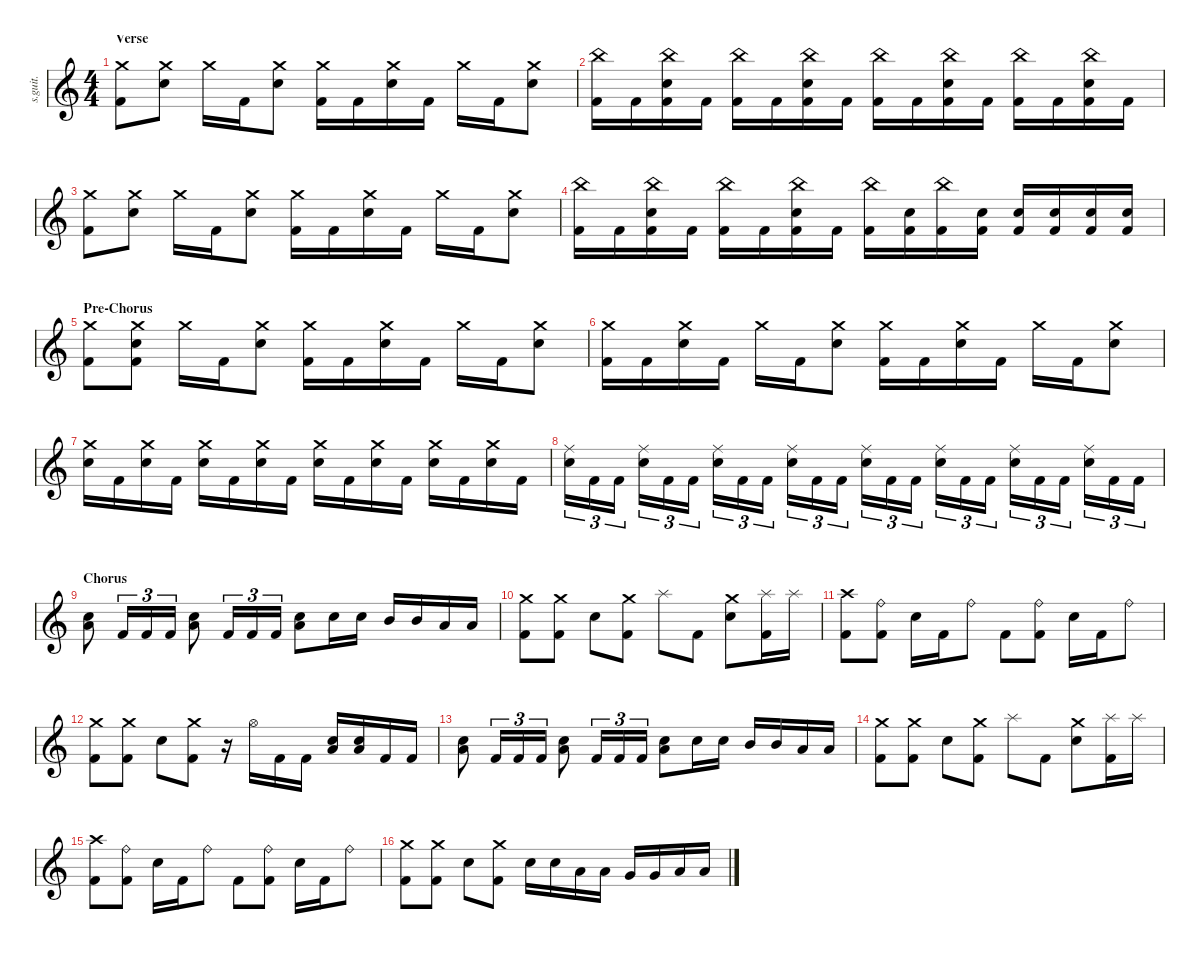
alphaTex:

\defaultSystemsLayout 4
\hideDynamics
\bracketExtendMode nobrackets
\track ("The Rev" "s.guit.") {instrument percussion}
\staff {score}
\articulation defaults
\ts (4 4)
\section ("" "Verse")
\tempo (125 hide)
\clef g2
\ks c
("Crash medium (hit)" "Kick (hit) 2").8{lyrics (0 "") lyrics (1 "") lyrics (2 "") lyrics (3 "") lyrics (4 "") dy mp} ("Crash medium (hit)" "Electric Snare (hit)").8{lyrics (0 "") lyrics (1 "") lyrics (2 "") lyrics (3 "") lyrics (4 "") dy f} "Crash medium (hit)".16{lyrics (0 "") lyrics (1 "") lyrics (2 "") lyrics (3 "") lyrics (4 "") dy mp} "Kick (hit) 2".16{lyrics (0 "") lyrics (1 "") lyrics (2 "") lyrics (3 "") lyrics (4 "") dy fff} ("Crash medium (hit)" "Electric Snare (hit)").8{lyrics (0 "") lyrics (1 "") lyrics (2 "") lyrics (3 "") lyrics (4 "") dy f} ("Crash medium (hit)" "Kick (hit) 2").16{lyrics (0 "") lyrics (1 "") lyrics (2 "") lyrics (3 "") lyrics (4 "") dy mp} "Kick (hit) 2".16{lyrics (0 "") lyrics (1 "") lyrics (2 "") lyrics (3 "") lyrics (4 "") dy fff} ("Crash medium (hit)" "Electric Snare (hit)").16{lyrics (0 "") lyrics (1 "") lyrics (2 "") lyrics (3 "") lyrics (4 "") dy f} "Kick (hit) 2".16{lyrics (0 "") lyrics (1 "") lyrics (2 "") lyrics (3 "") lyrics (4 "") dy fff} "Crash medium (hit)".16{lyrics (0 "") lyrics (1 "") lyrics (2 "") lyrics (3 "") lyrics (4 "") dy mp} "Kick (hit) 2".16{lyrics (0 "") lyrics (1 "") lyrics (2 "") lyrics (3 "") lyrics (4 "") dy fff} ("Crash medium (hit)" "Electric Snare (hit)").8{lyrics (0 "") lyrics (1 "") lyrics (2 "") lyrics (3 "") lyrics (4 "") dy f} |
("China (hit)" "Kick (hit) 2").16{lyrics (0 "") lyrics (1 "") lyrics (2 "") lyrics (3 "") lyrics (4 "") dy mp} "Kick (hit) 2".16{lyrics (0 "") lyrics (1 "") lyrics (2 "") lyrics (3 "") lyrics (4 "") dy fff} ("China (hit)" "Electric Snare (hit)" "Kick (hit) 2").16{lyrics (0 "") lyrics (1 "") lyrics (2 "") lyrics (3 "") lyrics (4 "") dy f} "Kick (hit) 2".16{lyrics (0 "") lyrics (1 "") lyrics (2 "") lyrics (3 "") lyrics (4 "") dy fff} ("China (hit)" "Kick (hit) 2").16{lyrics (0 "") lyrics (1 "") lyrics (2 "") lyrics (3 "") lyrics (4 "")} "Kick (hit) 2".16{lyrics (0 "") lyrics (1 "") lyrics (2 "") lyrics (3 "") lyrics (4 "")} ("China (hit)" "Electric Snare (hit)" "Kick (hit) 2").16{lyrics (0 "") lyrics (1 "") lyrics (2 "") lyrics (3 "") lyrics (4 "") dy f} "Kick (hit) 2".16{lyrics (0 "") lyrics (1 "") lyrics (2 "") lyrics (3 "") lyrics (4 "") dy fff} ("China (hit)" "Kick (hit) 2").16{lyrics (0 "") lyrics (1 "") lyrics (2 "") lyrics (3 "") lyrics (4 "")} "Kick (hit) 2".16{lyrics (0 "") lyrics (1 "") lyrics (2 "") lyrics (3 "") lyrics (4 "")} ("China (hit)" "Electric Snare (hit)" "Kick (hit) 2").16{lyrics (0 "") lyrics (1 "") lyrics (2 "") lyrics (3 "") lyrics (4 "") dy f} "Kick (hit) 2".16{lyrics (0 "") lyrics (1 "") lyrics (2 "") lyrics (3 "") lyrics (4 "") dy fff} ("China (hit)" "Kick (hit) 2").16{lyrics (0 "") lyrics (1 "") lyrics (2 "") lyrics (3 "") lyrics (4 "")} "Kick (hit) 2".16{lyrics (0 "") lyrics (1 "") lyrics (2 "") lyrics (3 "") lyrics (4 "")} ("China (hit)" "Electric Snare (hit)" "Kick (hit) 2").16{lyrics (0 "") lyrics (1 "") lyrics (2 "") lyrics (3 "") lyrics (4 "") dy f} "Kick (hit) 2".16{lyrics (0 "") lyrics (1 "") lyrics (2 "") lyrics (3 "") lyrics (4 "") dy fff} |
("Crash medium (hit)" "Kick (hit) 2").8{lyrics (0 "") lyrics (1 "") lyrics (2 "") lyrics (3 "") lyrics (4 "")} ("Crash medium (hit)" "Electric Snare (hit)").8{lyrics (0 "") lyrics (1 "") lyrics (2 "") lyrics (3 "") lyrics (4 "") dy f} "Crash medium (hit)".16{lyrics (0 "") lyrics (1 "") lyrics (2 "") lyrics (3 "") lyrics (4 "") dy mp} "Kick (hit) 2".16{lyrics (0 "") lyrics (1 "") lyrics (2 "") lyrics (3 "") lyrics (4 "") dy fff} ("Crash medium (hit)" "Electric Snare (hit)").8{lyrics (0 "") lyrics (1 "") lyrics (2 "") lyrics (3 "") lyrics (4 "") dy f} ("Crash medium (hit)" "Kick (hit) 2").16{lyrics (0 "") lyrics (1 "") lyrics (2 "") lyrics (3 "") lyrics (4 "") dy mp} "Kick (hit) 2".16{lyrics (0 "") lyrics (1 "") lyrics (2 "") lyrics (3 "") lyrics (4 "") dy fff} ("Crash medium (hit)" "Electric Snare (hit)").16{lyrics (0 "") lyrics (1 "") lyrics (2 "") lyrics (3 "") lyrics (4 "") dy f} "Kick (hit) 2".16{lyrics (0 "") lyrics (1 "") lyrics (2 "") lyrics (3 "") lyrics (4 "") dy fff} "Crash medium (hit)".16{lyrics (0 "") lyrics (1 "") lyrics (2 "") lyrics (3 "") lyrics (4 "") dy mp} "Kick (hit) 2".16{lyrics (0 "") lyrics (1 "") lyrics (2 "") lyrics (3 "") lyrics (4 "") dy fff} ("Crash medium (hit)" "Electric Snare (hit)").8{lyrics (0 "") lyrics (1 "") lyrics (2 "") lyrics (3 "") lyrics (4 "") dy f} |
("China (hit)" "Kick (hit) 2").16{lyrics (0 "") lyrics (1 "") lyrics (2 "") lyrics (3 "") lyrics (4 "")} "Kick (hit) 2".16{lyrics (0 "") lyrics (1 "") lyrics (2 "") lyrics (3 "") lyrics (4 "") dy fff} ("China (hit)" "Electric Snare (hit)" "Kick (hit) 2").16{lyrics (0 "") lyrics (1 "") lyrics (2 "") lyrics (3 "") lyrics (4 "") dy f} "Kick (hit) 2".16{lyrics (0 "") lyrics (1 "") lyrics (2 "") lyrics (3 "") lyrics (4 "") dy fff} ("China (hit)" "Kick (hit) 2").16{lyrics (0 "") lyrics (1 "") lyrics (2 "") lyrics (3 "") lyrics (4 "")} "Kick (hit) 2".16{lyrics (0 "") lyrics (1 "") lyrics (2 "") lyrics (3 "") lyrics (4 "")} ("China (hit)" "Electric Snare (hit)" "Kick (hit) 2").16{lyrics (0 "") lyrics (1 "") lyrics (2 "") lyrics (3 "") lyrics (4 "") dy f} "Kick (hit) 2".16{lyrics (0 "") lyrics (1 "") lyrics (2 "") lyrics (3 "") lyrics (4 "") dy fff} ("China (hit)" "Kick (hit) 2").16{lyrics (0 "") lyrics (1 "") lyrics (2 "") lyrics (3 "") lyrics (4 "")} ("Electric Snare (hit)" "Kick (hit) 2").16{lyrics (0 "") lyrics (1 "") lyrics (2 "") lyrics (3 "") lyrics (4 "")} ("China (hit)" "Kick (hit) 2").16{lyrics (0 "") lyrics (1 "") lyrics (2 "") lyrics (3 "") lyrics (4 "")} ("Electric Snare (hit)" "Kick (hit) 2").16{lyrics (0 "") lyrics (1 "") lyrics (2 "") lyrics (3 "") lyrics (4 "")} ("Electric Snare (hit)" "Kick (hit) 2").16{lyrics (0 "") lyrics (1 "") lyrics (2 "") lyrics (3 "") lyrics (4 "")} ("Electric Snare (hit)" "Kick (hit) 2").16{lyrics (0 "") lyrics (1 "") lyrics (2 "") lyrics (3 "") lyrics (4 "")} ("Electric Snare (hit)" "Kick (hit) 2").16{lyrics (0 "") lyrics (1 "") lyrics (2 "") lyrics (3 "") lyrics (4 "")} ("Electric Snare (hit)" "Kick (hit) 2").16{lyrics (0 "") lyrics (1 "") lyrics (2 "") lyrics (3 "") lyrics (4 "")} |
\section ("" "Pre-Chorus")
("Crash medium (hit)" "Kick (hit) 2").8{lyrics (0 "") lyrics (1 "") lyrics (2 "") lyrics (3 "") lyrics (4 "")} ("Crash medium (hit)" "Electric Snare (hit)" "Kick (hit) 2").8{lyrics (0 "") lyrics (1 "") lyrics (2 "") lyrics (3 "") lyrics (4 "") dy f} "Crash medium (hit)".16{lyrics (0 "") lyrics (1 "") lyrics (2 "") lyrics (3 "") lyrics (4 "") dy mp} "Kick (hit) 2".16{lyrics (0 "") lyrics (1 "") lyrics (2 "") lyrics (3 "") lyrics (4 "") dy fff} ("Crash medium (hit)" "Electric Snare (hit)").8{lyrics (0 "") lyrics (1 "") lyrics (2 "") lyrics (3 "") lyrics (4 "") dy f} ("Crash medium (hit)" "Kick (hit) 2").16{lyrics (0 "") lyrics (1 "") lyrics (2 "") lyrics (3 "") lyrics (4 "") dy mp} "Kick (hit) 2".16{lyrics (0 "") lyrics (1 "") lyrics (2 "") lyrics (3 "") lyrics (4 "") dy fff} ("Crash medium (hit)" "Electric Snare (hit)").16{lyrics (0 "") lyrics (1 "") lyrics (2 "") lyrics (3 "") lyrics (4 "") dy f} "Kick (hit) 2".16{lyrics (0 "") lyrics (1 "") lyrics (2 "") lyrics (3 "") lyrics (4 "") dy fff} "Crash medium (hit)".16{lyrics (0 "") lyrics (1 "") lyrics (2 "") lyrics (3 "") lyrics (4 "") dy mp} "Kick (hit) 2".16{lyrics (0 "") lyrics (1 "") lyrics (2 "") lyrics (3 "") lyrics (4 "") dy fff} ("Crash medium (hit)" "Electric Snare (hit)").8{lyrics (0 "") lyrics (1 "") lyrics (2 "") lyrics (3 "") lyrics (4 "") dy f} |
("Crash medium (hit)" "Kick (hit) 2").16{lyrics (0 "") lyrics (1 "") lyrics (2 "") lyrics (3 "") lyrics (4 "") dy mp} "Kick (hit) 2".16{lyrics (0 "") lyrics (1 "") lyrics (2 "") lyrics (3 "") lyrics (4 "") dy fff} ("Crash medium (hit)" "Electric Snare (hit)").16{lyrics (0 "") lyrics (1 "") lyrics (2 "") lyrics (3 "") lyrics (4 "") dy f} "Kick (hit) 2".16{lyrics (0 "") lyrics (1 "") lyrics (2 "") lyrics (3 "") lyrics (4 "") dy fff} "Crash medium (hit)".16{lyrics (0 "") lyrics (1 "") lyrics (2 "") lyrics (3 "") lyrics (4 "") dy mp} "Kick (hit) 2".16{lyrics (0 "") lyrics (1 "") lyrics (2 "") lyrics (3 "") lyrics (4 "") dy fff} ("Crash medium (hit)" "Electric Snare (hit)").8{lyrics (0 "") lyrics (1 "") lyrics (2 "") lyrics (3 "") lyrics (4 "") dy f} ("Crash medium (hit)" "Kick (hit) 2").16{lyrics (0 "") lyrics (1 "") lyrics (2 "") lyrics (3 "") lyrics (4 "") dy mp} "Kick (hit) 2".16{lyrics (0 "") lyrics (1 "") lyrics (2 "") lyrics (3 "") lyrics (4 "") dy fff} ("Crash medium (hit)" "Electric Snare (hit)").16{lyrics (0 "") lyrics (1 "") lyrics (2 "") lyrics (3 "") lyrics (4 "") dy f} "Kick (hit) 2".16{lyrics (0 "") lyrics (1 "") lyrics (2 "") lyrics (3 "") lyrics (4 "") dy fff} "Crash medium (hit)".16{lyrics (0 "") lyrics (1 "") lyrics (2 "") lyrics (3 "") lyrics (4 "") dy mp} "Kick (hit) 2".16{lyrics (0 "") lyrics (1 "") lyrics (2 "") lyrics (3 "") lyrics (4 "") dy fff} ("Crash medium (hit)" "Electric Snare (hit)").8{lyrics (0 "") lyrics (1 "") lyrics (2 "") lyrics (3 "") lyrics (4 "") dy f} |
("Crash medium (hit)" "Electric Snare (hit)").16{lyrics (0 "") lyrics (1 "") lyrics (2 "") lyrics (3 "") lyrics (4 "")} "Kick (hit) 2".16{lyrics (0 "") lyrics (1 "") lyrics (2 "") lyrics (3 "") lyrics (4 "") dy fff} ("Crash medium (hit)" "Electric Snare (hit)").16{lyrics (0 "") lyrics (1 "") lyrics (2 "") lyrics (3 "") lyrics (4 "") dy f} "Kick (hit) 2".16{lyrics (0 "") lyrics (1 "") lyrics (2 "") lyrics (3 "") lyrics (4 "") dy fff} ("Crash medium (hit)" "Electric Snare (hit)").16{lyrics (0 "") lyrics (1 "") lyrics (2 "") lyrics (3 "") lyrics (4 "") dy f} "Kick (hit) 2".16{lyrics (0 "") lyrics (1 "") lyrics (2 "") lyrics (3 "") lyrics (4 "") dy fff} ("Crash medium (hit)" "Electric Snare (hit)").16{lyrics (0 "") lyrics (1 "") lyrics (2 "") lyrics (3 "") lyrics (4 "") dy f} "Kick (hit) 2".16{lyrics (0 "") lyrics (1 "") lyrics (2 "") lyrics (3 "") lyrics (4 "") dy fff} ("Crash medium (hit)" "Electric Snare (hit)").16{lyrics (0 "") lyrics (1 "") lyrics (2 "") lyrics (3 "") lyrics (4 "") dy f} "Kick (hit) 2".16{lyrics (0 "") lyrics (1 "") lyrics (2 "") lyrics (3 "") lyrics (4 "") dy fff} ("Crash medium (hit)" "Electric Snare (hit)").16{lyrics (0 "") lyrics (1 "") lyrics (2 "") lyrics (3 "") lyrics (4 "") dy f} "Kick (hit) 2".16{lyrics (0 "") lyrics (1 "") lyrics (2 "") lyrics (3 "") lyrics (4 "") dy fff} ("Crash medium (hit)" "Electric Snare (hit)").16{lyrics (0 "") lyrics (1 "") lyrics (2 "") lyrics (3 "") lyrics (4 "") dy f} "Kick (hit) 2".16{lyrics (0 "") lyrics (1 "") lyrics (2 "") lyrics (3 "") lyrics (4 "") dy fff} ("Crash medium (hit)" "Electric Snare (hit)").16{lyrics (0 "") lyrics (1 "") lyrics (2 "") lyrics (3 "") lyrics (4 "") dy f} "Kick (hit) 2".16{lyrics (0 "") lyrics (1 "") lyrics (2 "") lyrics (3 "") lyrics (4 "") dy fff} |
("Ride (middle)" "Electric Snare (hit)").16{tu (3 2) lyrics (0 "") lyrics (1 "") lyrics (2 "") lyrics (3 "") lyrics (4 "") dy f} "Kick (hit) 2".16{tu (3 2) lyrics (0 "") lyrics (1 "") lyrics (2 "") lyrics (3 "") lyrics (4 "") dy fff} "Kick (hit) 2".16{tu (3 2) lyrics (0 "") lyrics (1 "") lyrics (2 "") lyrics (3 "") lyrics (4 "")} ("Ride (middle)" "Electric Snare (hit)").16{tu (3 2) lyrics (0 "") lyrics (1 "") lyrics (2 "") lyrics (3 "") lyrics (4 "") dy f} "Kick (hit) 2".16{tu (3 2) lyrics (0 "") lyrics (1 "") lyrics (2 "") lyrics (3 "") lyrics (4 "") dy fff} "Kick (hit) 2".16{tu (3 2) lyrics (0 "") lyrics (1 "") lyrics (2 "") lyrics (3 "") lyrics (4 "")} ("Ride (middle)" "Electric Snare (hit)").16{tu (3 2) lyrics (0 "") lyrics (1 "") lyrics (2 "") lyrics (3 "") lyrics (4 "") dy f} "Kick (hit) 2".16{tu (3 2) lyrics (0 "") lyrics (1 "") lyrics (2 "") lyrics (3 "") lyrics (4 "") dy fff} "Kick (hit) 2".16{tu (3 2) lyrics (0 "") lyrics (1 "") lyrics (2 "") lyrics (3 "") lyrics (4 "")} ("Ride (middle)" "Electric Snare (hit)").16{tu (3 2) lyrics (0 "") lyrics (1 "") lyrics (2 "") lyrics (3 "") lyrics (4 "") dy f} "Kick (hit) 2".16{tu (3 2) lyrics (0 "") lyrics (1 "") lyrics (2 "") lyrics (3 "") lyrics (4 "") dy fff} "Kick (hit) 2".16{tu (3 2) lyrics (0 "") lyrics (1 "") lyrics (2 "") lyrics (3 "") lyrics (4 "")} ("Ride (middle)" "Electric Snare (hit)").16{tu (3 2) lyrics (0 "") lyrics (1 "") lyrics (2 "") lyrics (3 "") lyrics (4 "") dy f} "Kick (hit) 2".16{tu (3 2) lyrics (0 "") lyrics (1 "") lyrics (2 "") lyrics (3 "") lyrics (4 "") dy fff} "Kick (hit) 2".16{tu (3 2) lyrics (0 "") lyrics (1 "") lyrics (2 "") lyrics (3 "") lyrics (4 "")} ("Ride (middle)" "Electric Snare (hit)").16{tu (3 2) lyrics (0 "") lyrics (1 "") lyrics (2 "") lyrics (3 "") lyrics (4 "") dy f} "Kick (hit) 2".16{tu (3 2) lyrics (0 "") lyrics (1 "") lyrics (2 "") lyrics (3 "") lyrics (4 "") dy fff} "Kick (hit) 2".16{tu (3 2) lyrics (0 "") lyrics (1 "") lyrics (2 "") lyrics (3 "") lyrics (4 "")} ("Ride (middle)" "Electric Snare (hit)").16{tu (3 2) lyrics (0 "") lyrics (1 "") lyrics (2 "") lyrics (3 "") lyrics (4 "") dy f} "Kick (hit) 2".16{tu (3 2) lyrics (0 "") lyrics (1 "") lyrics (2 "") lyrics (3 "") lyrics (4 "") dy fff} "Kick (hit) 2".16{tu (3 2) lyrics (0 "") lyrics (1 "") lyrics (2 "") lyrics (3 "") lyrics (4 "")} ("Ride (middle)" "Electric Snare (hit)").16{tu (3 2) lyrics (0 "") lyrics (1 "") lyrics (2 "") lyrics (3 "") lyrics (4 "") dy f} "Kick (hit) 2".16{tu (3 2) lyrics (0 "") lyrics (1 "") lyrics (2 "") lyrics (3 "") lyrics (4 "") dy fff} "Kick (hit) 2".16{tu (3 2) lyrics (0 "") lyrics (1 "") lyrics (2 "") lyrics (3 "") lyrics (4 "")} |
\section ("" "Chorus")
("Electric Snare (hit)" "Low Floor Tom (hit)").8{lyrics (0 "") lyrics (1 "") lyrics (2 "") lyrics (3 "") lyrics (4 "") dy f} "Kick (hit) 2".16{tu (3 2) lyrics (0 "") lyrics (1 "") lyrics (2 "") lyrics (3 "") lyrics (4 "") dy fff} "Kick (hit) 2".16{tu (3 2) lyrics (0 "") lyrics (1 "") lyrics (2 "") lyrics (3 "") lyrics (4 "")} "Kick (hit) 2".16{tu (3 2) lyrics (0 "") lyrics (1 "") lyrics (2 "") lyrics (3 "") lyrics (4 "")} ("Electric Snare (hit)" "Low Floor Tom (hit)").8{lyrics (0 "") lyrics (1 "") lyrics (2 "") lyrics (3 "") lyrics (4 "") dy f} "Kick (hit) 2".16{tu (3 2) lyrics (0 "") lyrics (1 "") lyrics (2 "") lyrics (3 "") lyrics (4 "") dy fff} "Kick (hit) 2".16{tu (3 2) lyrics (0 "") lyrics (1 "") lyrics (2 "") lyrics (3 "") lyrics (4 "")} "Kick (hit) 2".16{tu (3 2) lyrics (0 "") lyrics (1 "") lyrics (2 "") lyrics (3 "") lyrics (4 "")} ("Electric Snare (hit)" "Low Floor Tom (hit)").8{lyrics (0 "") lyrics (1 "") lyrics (2 "") lyrics (3 "") lyrics (4 "") dy f} "Electric Snare (hit)".16{lyrics (0 "") lyrics (1 "") lyrics (2 "") lyrics (3 "") lyrics (4 "") dy ff} "Electric Snare (hit)".16{lyrics (0 "") lyrics (1 "") lyrics (2 "") lyrics (3 "") lyrics (4 "")} "Mid Tom (hit)".16{lyrics (0 "") lyrics (1 "") lyrics (2 "") lyrics (3 "") lyrics (4 "") dy fff} "Mid Tom (hit)".16{lyrics (0 "") lyrics (1 "") lyrics (2 "") lyrics (3 "") lyrics (4 "")} "Low Tom (hit)".16{lyrics (0 "") lyrics (1 "") lyrics (2 "") lyrics (3 "") lyrics (4 "")} "Low Tom (hit)".16{lyrics (0 "") lyrics (1 "") lyrics (2 "") lyrics (3 "") lyrics (4 "")} |
("Crash medium (hit)" "Kick (hit) 2").8{lyrics (0 "") lyrics (1 "") lyrics (2 "") lyrics (3 "") lyrics (4 "")} ("Crash medium (hit)" "Kick (hit) 2").8{lyrics (0 "") lyrics (1 "") lyrics (2 "") lyrics (3 "") lyrics (4 "")} "Electric Snare (hit)".8{lyrics (0 "") lyrics (1 "") lyrics (2 "") lyrics (3 "") lyrics (4 "") dy f} ("Crash medium (hit)" "Kick (hit) 2").8{lyrics (0 "") lyrics (1 "") lyrics (2 "") lyrics (3 "") lyrics (4 "")} "Splash (hit)".8{lyrics (0 "") lyrics (1 "") lyrics (2 "") lyrics (3 "") lyrics (4 "") dy mf} "Kick (hit) 2".8{lyrics (0 "") lyrics (1 "") lyrics (2 "") lyrics (3 "") lyrics (4 "") dy fff} ("Crash medium (hit)" "Electric Snare (hit)").8{lyrics (0 "") lyrics (1 "") lyrics (2 "") lyrics (3 "") lyrics (4 "") dy f} ("Splash (hit)" "Kick (hit) 2").16{lyrics (0 "") lyrics (1 "") lyrics (2 "") lyrics (3 "") lyrics (4 "") dy mf} "Splash (hit)".16{lyrics (0 "") lyrics (1 "") lyrics (2 "") lyrics (3 "") lyrics (4 "")} |
("Crash high (hit)" "Kick (hit) 2").8{lyrics (0 "") lyrics (1 "") lyrics (2 "") lyrics (3 "") lyrics (4 "") dy f} ("Ride (bell)" "Kick (hit) 2").8{lyrics (0 "") lyrics (1 "") lyrics (2 "") lyrics (3 "") lyrics (4 "")} "Electric Snare (hit)".16{lyrics (0 "") lyrics (1 "") lyrics (2 "") lyrics (3 "") lyrics (4 "")} "Kick (hit) 2".16{lyrics (0 "") lyrics (1 "") lyrics (2 "") lyrics (3 "") lyrics (4 "") dy fff} "Ride (bell)".8{lyrics (0 "") lyrics (1 "") lyrics (2 "") lyrics (3 "") lyrics (4 "") dy f} "Kick (hit) 2".8{lyrics (0 "") lyrics (1 "") lyrics (2 "") lyrics (3 "") lyrics (4 "") dy fff} ("Ride (bell)" "Kick (hit) 2").8{lyrics (0 "") lyrics (1 "") lyrics (2 "") lyrics (3 "") lyrics (4 "")} "Electric Snare (hit)".16{lyrics (0 "") lyrics (1 "") lyrics (2 "") lyrics (3 "") lyrics (4 "") dy f} "Kick (hit) 2".16{lyrics (0 "") lyrics (1 "") lyrics (2 "") lyrics (3 "") lyrics (4 "") dy fff} "Ride (bell)".8{lyrics (0 "") lyrics (1 "") lyrics (2 "") lyrics (3 "") lyrics (4 "") dy f} |
("Crash medium (hit)" "Kick (hit) 2").8{lyrics (0 "") lyrics (1 "") lyrics (2 "") lyrics (3 "") lyrics (4 "")} ("Crash medium (hit)" "Kick (hit) 2").8{lyrics (0 "") lyrics (1 "") lyrics (2 "") lyrics (3 "") lyrics (4 "")} "Electric Snare (hit)".8{lyrics (0 "") lyrics (1 "") lyrics (2 "") lyrics (3 "") lyrics (4 "")} ("Crash medium (hit)" "Kick (hit) 2").8{lyrics (0 "") lyrics (1 "") lyrics (2 "") lyrics (3 "") lyrics (4 "")} r.16 "Hi-Hat (open)".16{lyrics (0 "") lyrics (1 "") lyrics (2 "") lyrics (3 "") lyrics (4 "") dy mf} "Kick (hit) 2".16{lyrics (0 "") lyrics (1 "") lyrics (2 "") lyrics (3 "") lyrics (4 "") dy fff} "Kick (hit) 2".16{lyrics (0 "") lyrics (1 "") lyrics (2 "") lyrics (3 "") lyrics (4 "")} ("Electric Snare (hit)" "Low Floor Tom (hit)").16{lyrics (0 "") lyrics (1 "") lyrics (2 "") lyrics (3 "") lyrics (4 "") dy f} ("Electric Snare (hit)" "Low Floor Tom (hit)").16{lyrics (0 "") lyrics (1 "") lyrics (2 "") lyrics (3 "") lyrics (4 "")} "Kick (hit) 2".16{lyrics (0 "") lyrics (1 "") lyrics (2 "") lyrics (3 "") lyrics (4 "") dy fff} "Kick (hit) 2".16{lyrics (0 "") lyrics (1 "") lyrics (2 "") lyrics (3 "") lyrics (4 "")} |
("Electric Snare (hit)" "Low Floor Tom (hit)").8{lyrics (0 "") lyrics (1 "") lyrics (2 "") lyrics (3 "") lyrics (4 "") dy f} "Kick (hit) 2".16{tu (3 2) lyrics (0 "") lyrics (1 "") lyrics (2 "") lyrics (3 "") lyrics (4 "") dy fff} "Kick (hit) 2".16{tu (3 2) lyrics (0 "") lyrics (1 "") lyrics (2 "") lyrics (3 "") lyrics (4 "")} "Kick (hit) 2".16{tu (3 2) lyrics (0 "") lyrics (1 "") lyrics (2 "") lyrics (3 "") lyrics (4 "")} ("Electric Snare (hit)" "Low Floor Tom (hit)").8{lyrics (0 "") lyrics (1 "") lyrics (2 "") lyrics (3 "") lyrics (4 "") dy f} "Kick (hit) 2".16{tu (3 2) lyrics (0 "") lyrics (1 "") lyrics (2 "") lyrics (3 "") lyrics (4 "") dy fff} "Kick (hit) 2".16{tu (3 2) lyrics (0 "") lyrics (1 "") lyrics (2 "") lyrics (3 "") lyrics (4 "")} "Kick (hit) 2".16{tu (3 2) lyrics (0 "") lyrics (1 "") lyrics (2 "") lyrics (3 "") lyrics (4 "")} ("Electric Snare (hit)" "Low Floor Tom (hit)").8{lyrics (0 "") lyrics (1 "") lyrics (2 "") lyrics (3 "") lyrics (4 "") dy f} "Electric Snare (hit)".16{lyrics (0 "") lyrics (1 "") lyrics (2 "") lyrics (3 "") lyrics (4 "") dy ff} "Electric Snare (hit)".16{lyrics (0 "") lyrics (1 "") lyrics (2 "") lyrics (3 "") lyrics (4 "")} "Mid Tom (hit)".16{lyrics (0 "") lyrics (1 "") lyrics (2 "") lyrics (3 "") lyrics (4 "") dy fff} "Mid Tom (hit)".16{lyrics (0 "") lyrics (1 "") lyrics (2 "") lyrics (3 "") lyrics (4 "")} "Low Tom (hit)".16{lyrics (0 "") lyrics (1 "") lyrics (2 "") lyrics (3 "") lyrics (4 "")} "Low Tom (hit)".16{lyrics (0 "") lyrics (1 "") lyrics (2 "") lyrics (3 "") lyrics (4 "")} |
("Crash medium (hit)" "Kick (hit) 2").8{lyrics (0 "") lyrics (1 "") lyrics (2 "") lyrics (3 "") lyrics (4 "")} ("Crash medium (hit)" "Kick (hit) 2").8{lyrics (0 "") lyrics (1 "") lyrics (2 "") lyrics (3 "") lyrics (4 "")} "Electric Snare (hit)".8{lyrics (0 "") lyrics (1 "") lyrics (2 "") lyrics (3 "") lyrics (4 "") dy f} ("Crash medium (hit)" "Kick (hit) 2").8{lyrics (0 "") lyrics (1 "") lyrics (2 "") lyrics (3 "") lyrics (4 "")} "Splash (hit)".8{lyrics (0 "") lyrics (1 "") lyrics (2 "") lyrics (3 "") lyrics (4 "") dy mf} "Kick (hit) 2".8{lyrics (0 "") lyrics (1 "") lyrics (2 "") lyrics (3 "") lyrics (4 "") dy fff} ("Crash medium (hit)" "Electric Snare (hit)").8{lyrics (0 "") lyrics (1 "") lyrics (2 "") lyrics (3 "") lyrics (4 "") dy f} ("Splash (hit)" "Kick (hit) 2").16{lyrics (0 "") lyrics (1 "") lyrics (2 "") lyrics (3 "") lyrics (4 "") dy mf} "Splash (hit)".16{lyrics (0 "") lyrics (1 "") lyrics (2 "") lyrics (3 "") lyrics (4 "")} |
("Crash high (hit)" "Kick (hit) 2").8{lyrics (0 "") lyrics (1 "") lyrics (2 "") lyrics (3 "") lyrics (4 "") dy f} ("Ride (bell)" "Kick (hit) 2").8{lyrics (0 "") lyrics (1 "") lyrics (2 "") lyrics (3 "") lyrics (4 "")} "Electric Snare (hit)".16{lyrics (0 "") lyrics (1 "") lyrics (2 "") lyrics (3 "") lyrics (4 "")} "Kick (hit) 2".16{lyrics (0 "") lyrics (1 "") lyrics (2 "") lyrics (3 "") lyrics (4 "") dy fff} "Ride (bell)".8{lyrics (0 "") lyrics (1 "") lyrics (2 "") lyrics (3 "") lyrics (4 "") dy f} "Kick (hit) 2".8{lyrics (0 "") lyrics (1 "") lyrics (2 "") lyrics (3 "") lyrics (4 "") dy fff} ("Ride (bell)" "Kick (hit) 2").8{lyrics (0 "") lyrics (1 "") lyrics (2 "") lyrics (3 "") lyrics (4 "")} "Electric Snare (hit)".16{lyrics (0 "") lyrics (1 "") lyrics (2 "") lyrics (3 "") lyrics (4 "") dy f} "Kick (hit) 2".16{lyrics (0 "") lyrics (1 "") lyrics (2 "") lyrics (3 "") lyrics (4 "") dy fff} "Ride (bell)".8{lyrics (0 "") lyrics (1 "") lyrics (2 "") lyrics (3 "") lyrics (4 "") dy f} |
("Crash medium (hit)" "Kick (hit) 2").8{lyrics (0 "") lyrics (1 "") lyrics (2 "") lyrics (3 "") lyrics (4 "")} ("Crash medium (hit)" "Kick (hit) 2").8{lyrics (0 "") lyrics (1 "") lyrics (2 "") lyrics (3 "") lyrics (4 "")} "Electric Snare (hit)".8{lyrics (0 "") lyrics (1 "") lyrics (2 "") lyrics (3 "") lyrics (4 "")} ("Crash medium (hit)" "Kick (hit) 2").8{lyrics (0 "") lyrics (1 "") lyrics (2 "") lyrics (3 "") lyrics (4 "")} "Electric Snare (hit)".16{lyrics (0 "") lyrics (1 "") lyrics (2 "") lyrics (3 "") lyrics (4 "") dy ff} "Electric Snare (hit)".16{lyrics (0 "") lyrics (1 "") lyrics (2 "") lyrics (3 "") lyrics (4 "")} "Low Tom (hit)".16{lyrics (0 "") lyrics (1 "") lyrics (2 "") lyrics (3 "") lyrics (4 "") dy fff} "Low Tom (hit)".16{lyrics (0 "") lyrics (1 "") lyrics (2 "") lyrics (3 "") lyrics (4 "")} "Very Low Tom (hit)".16{lyrics (0 "") lyrics (1 "") lyrics (2 "") lyrics (3 "") lyrics (4 "") dy ff} "Very Low Tom (hit)".16{lyrics (0 "") lyrics (1 "") lyrics (2 "") lyrics (3 "") lyrics (4 "")} "Low Floor Tom (hit)".16{lyrics (0 "") lyrics (1 "") lyrics (2 "") lyrics (3 "") lyrics (4 "") dy f} "Low Floor Tom (hit)".16{lyrics (0 "") lyrics (1 "") lyrics (2 "") lyrics (3 "") lyrics (4 "")}
